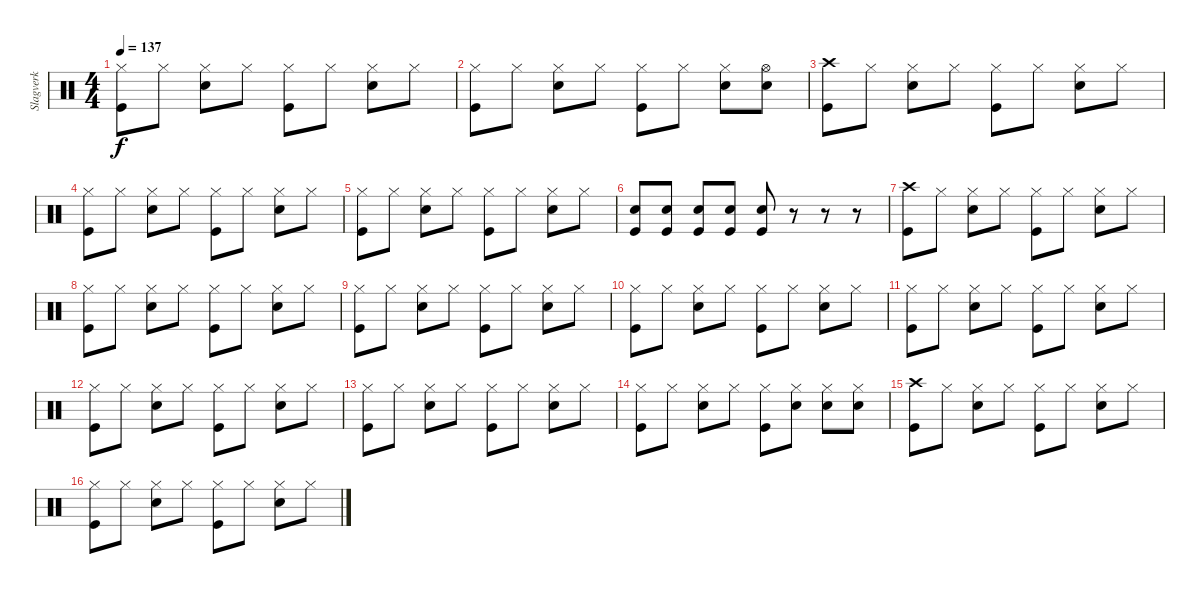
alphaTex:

\track ("Slagverk" "Slagverk") {instrument percussion}
\staff {score}
\articulation defaults
\ts (4 4)
\tempo 137
\clef neutral
\ks c
("Hi-Hat (closed)" "Kick (hit)").8{dy f} "Hi-Hat (closed)".8 ("Hi-Hat (closed)" "Snare (hit) 2").8 "Hi-Hat (closed)".8 ("Hi-Hat (closed)" "Kick (hit)").8 "Hi-Hat (closed)".8 ("Hi-Hat (closed)" "Snare (hit) 2").8 "Hi-Hat (closed)".8 |
("Hi-Hat (closed)" "Kick (hit)").8 "Hi-Hat (closed)".8 ("Hi-Hat (closed)" "Snare (hit) 2").8 "Hi-Hat (closed)".8 ("Hi-Hat (closed)" "Kick (hit)").8 "Hi-Hat (closed)".8 ("Hi-Hat (closed)" "Snare (hit) 2").8 ("Hi-Hat (open)" "Snare (hit) 2").8 |
("Crash high (hit)" "Kick (hit)").8 "Hi-Hat (closed)".8 ("Hi-Hat (closed)" "Snare (hit) 2").8 "Hi-Hat (closed)".8 ("Hi-Hat (closed)" "Kick (hit)").8 "Hi-Hat (closed)".8 ("Hi-Hat (closed)" "Snare (hit) 2").8 "Hi-Hat (closed)".8 |
("Hi-Hat (closed)" "Kick (hit)").8 "Hi-Hat (closed)".8 ("Hi-Hat (closed)" "Snare (hit) 2").8 "Hi-Hat (closed)".8 ("Hi-Hat (closed)" "Kick (hit)").8 "Hi-Hat (closed)".8 ("Hi-Hat (closed)" "Snare (hit) 2").8 "Hi-Hat (closed)".8 |
("Hi-Hat (closed)" "Kick (hit)").8 "Hi-Hat (closed)".8 ("Hi-Hat (closed)" "Snare (hit) 2").8 "Hi-Hat (closed)".8 ("Hi-Hat (closed)" "Kick (hit)").8 "Hi-Hat (closed)".8 ("Hi-Hat (closed)" "Snare (hit) 2").8 "Hi-Hat (closed)".8 |
("Kick (hit)" "Snare (hit) 2").8 ("Kick (hit)" "Snare (hit) 2").8 ("Kick (hit)" "Snare (hit) 2").8 ("Kick (hit)" "Snare (hit) 2").8 ("Kick (hit)" "Snare (hit) 2").8 r.8 r.8 r.8 |
("Crash high (hit)" "Kick (hit)").8 "Hi-Hat (closed)".8 ("Hi-Hat (closed)" "Snare (hit) 2").8 "Hi-Hat (closed)".8 ("Hi-Hat (closed)" "Kick (hit)").8 "Hi-Hat (closed)".8 ("Hi-Hat (closed)" "Snare (hit) 2").8 "Hi-Hat (closed)".8 |
("Hi-Hat (closed)" "Kick (hit)").8 "Hi-Hat (closed)".8 ("Hi-Hat (closed)" "Snare (hit) 2").8 "Hi-Hat (closed)".8 ("Hi-Hat (closed)" "Kick (hit)").8 "Hi-Hat (closed)".8 ("Hi-Hat (closed)" "Snare (hit) 2").8 "Hi-Hat (closed)".8 |
("Hi-Hat (closed)" "Kick (hit)").8 "Hi-Hat (closed)".8 ("Hi-Hat (closed)" "Snare (hit) 2").8 "Hi-Hat (closed)".8 ("Hi-Hat (closed)" "Kick (hit)").8 "Hi-Hat (closed)".8 ("Hi-Hat (closed)" "Snare (hit) 2").8 "Hi-Hat (closed)".8 |
("Hi-Hat (closed)" "Kick (hit)").8 "Hi-Hat (closed)".8 ("Hi-Hat (closed)" "Snare (hit) 2").8 "Hi-Hat (closed)".8 ("Hi-Hat (closed)" "Kick (hit)").8 "Hi-Hat (closed)".8 ("Hi-Hat (closed)" "Snare (hit) 2").8 "Hi-Hat (closed)".8 |
("Hi-Hat (closed)" "Kick (hit)").8 "Hi-Hat (closed)".8 ("Hi-Hat (closed)" "Snare (hit) 2").8 "Hi-Hat (closed)".8 ("Hi-Hat (closed)" "Kick (hit)").8 "Hi-Hat (closed)".8 ("Hi-Hat (closed)" "Snare (hit) 2").8 "Hi-Hat (closed)".8 |
("Hi-Hat (closed)" "Kick (hit)").8 "Hi-Hat (closed)".8 ("Hi-Hat (closed)" "Snare (hit) 2").8 "Hi-Hat (closed)".8 ("Hi-Hat (closed)" "Kick (hit)").8 "Hi-Hat (closed)".8 ("Hi-Hat (closed)" "Snare (hit) 2").8 "Hi-Hat (closed)".8 |
("Hi-Hat (closed)" "Kick (hit)").8 "Hi-Hat (closed)".8 ("Hi-Hat (closed)" "Snare (hit) 2").8 "Hi-Hat (closed)".8 ("Hi-Hat (closed)" "Kick (hit)").8 "Hi-Hat (closed)".8 ("Hi-Hat (closed)" "Snare (hit) 2").8 "Hi-Hat (closed)".8 |
("Hi-Hat (closed)" "Kick (hit)").8 "Hi-Hat (closed)".8 ("Hi-Hat (closed)" "Snare (hit) 2").8 "Hi-Hat (closed)".8 ("Hi-Hat (closed)" "Kick (hit)").8 ("Hi-Hat (closed)" "Snare (hit) 2").8 ("Hi-Hat (closed)" "Snare (hit) 2").8 ("Hi-Hat (closed)" "Snare (hit) 2").8 |
("Crash high (hit)" "Kick (hit)").8 "Hi-Hat (closed)".8 ("Hi-Hat (closed)" "Snare (hit) 2").8 "Hi-Hat (closed)".8 ("Hi-Hat (closed)" "Kick (hit)").8 "Hi-Hat (closed)".8 ("Hi-Hat (closed)" "Snare (hit) 2").8 "Hi-Hat (closed)".8 |
("Hi-Hat (closed)" "Kick (hit)").8 "Hi-Hat (closed)".8 ("Hi-Hat (closed)" "Snare (hit) 2").8 "Hi-Hat (closed)".8 ("Hi-Hat (closed)" "Kick (hit)").8 "Hi-Hat (closed)".8 ("Hi-Hat (closed)" "Snare (hit) 2").8 "Hi-Hat (closed)".8
